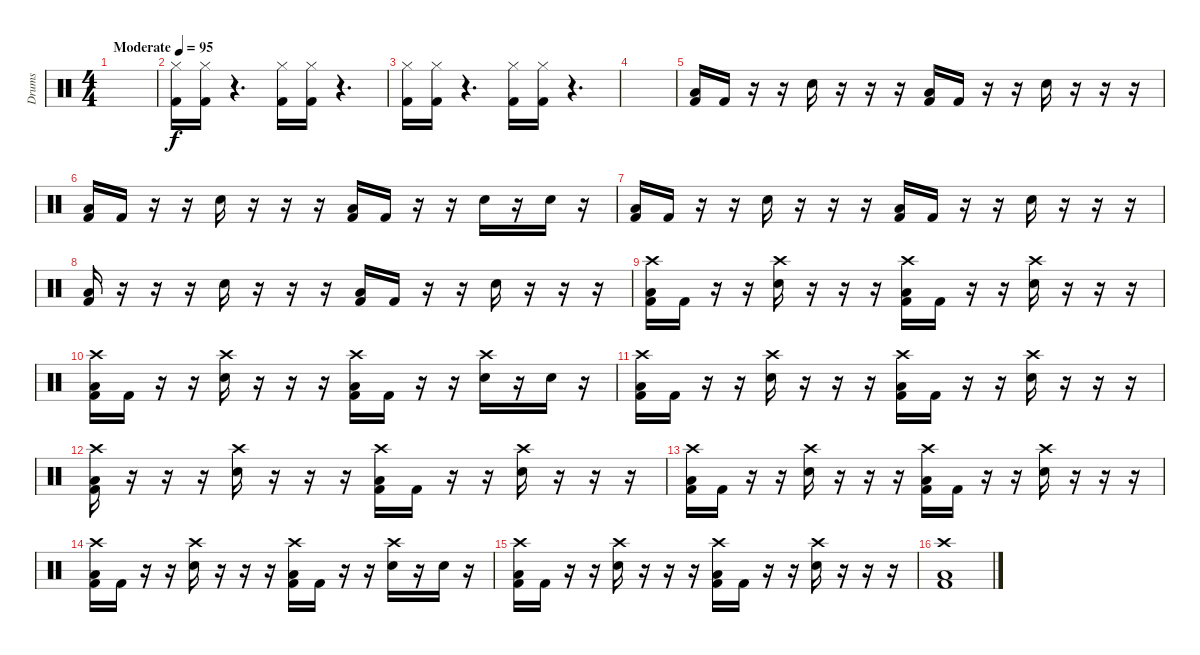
\track ("Drums" "Drums") {instrument percussion bank 255}
\staff {score}
\articulation defaults
\ts (4 4)
\tempo (95 "Moderate")
\clef neutral
\ks c
|
("Hi-Hat (closed)" "Kick (hit) 2").16 ("Hi-Hat (closed)" "Kick (hit) 2").16 r.4{d} ("Hi-Hat (closed)" "Kick (hit) 2").16 ("Hi-Hat (closed)" "Kick (hit) 2").16 r.4{d} |
("Hi-Hat (closed)" "Kick (hit) 2").16 ("Hi-Hat (closed)" "Kick (hit) 2").16 r.4{d} ("Hi-Hat (closed)" "Kick (hit) 2").16 ("Hi-Hat (closed)" "Kick (hit) 2").16 r.4{d} |
|
("Low Tom (hit)" "Kick (hit) 2").16 "Kick (hit) 2".16 r.16 r.16 "Snare (hit) 2".16 r.16 r.16 r.16 ("Low Tom (hit)" "Kick (hit) 2").16 "Kick (hit) 2".16 r.16 r.16 "Snare (hit) 2".16 r.16 r.16 r.16 |
("Low Tom (hit)" "Kick (hit) 2").16 "Kick (hit) 2".16 r.16 r.16 "Snare (hit) 2".16 r.16 r.16 r.16 ("Low Tom (hit)" "Kick (hit) 2").16 "Kick (hit) 2".16 r.16 r.16 "Snare (hit) 2".16 r.16 "Snare (hit) 2".16 r.16 |
("Low Tom (hit)" "Kick (hit) 2").16 "Kick (hit) 2".16 r.16 r.16 "Snare (hit) 2".16 r.16 r.16 r.16 ("Low Tom (hit)" "Kick (hit) 2").16 "Kick (hit) 2".16 r.16 r.16 "Snare (hit) 2".16 r.16 r.16 r.16 |
("Low Tom (hit)" "Kick (hit) 2").16 r.16 r.16 r.16 "Snare (hit) 2".16 r.16 r.16 r.16 ("Low Tom (hit)" "Kick (hit) 2").16 "Kick (hit) 2".16 r.16 r.16 "Snare (hit) 2".16 r.16 r.16 r.16 |
("Crash high (hit)" "Low Tom (hit)" "Kick (hit) 2").16 "Kick (hit) 2".16 r.16 r.16 ("Crash high (hit)" "Snare (hit) 2").16 r.16 r.16 r.16 ("Crash high (hit)" "Low Tom (hit)" "Kick (hit) 2").16 "Kick (hit) 2".16 r.16 r.16 ("Crash high (hit)" "Snare (hit) 2").16 r.16 r.16 r.16 |
("Crash high (hit)" "Low Tom (hit)" "Kick (hit) 2").16 "Kick (hit) 2".16 r.16 r.16 ("Crash high (hit)" "Snare (hit) 2").16 r.16 r.16 r.16 ("Crash high (hit)" "Low Tom (hit)" "Kick (hit) 2").16 "Kick (hit) 2".16 r.16 r.16 ("Crash high (hit)" "Snare (hit) 2").16 r.16 "Snare (hit) 2".16 r.16 |
("Crash high (hit)" "Low Tom (hit)" "Kick (hit) 2").16 "Kick (hit) 2".16 r.16 r.16 ("Crash high (hit)" "Snare (hit) 2").16 r.16 r.16 r.16 ("Crash high (hit)" "Low Tom (hit)" "Kick (hit) 2").16 "Kick (hit) 2".16 r.16 r.16 ("Crash high (hit)" "Snare (hit) 2").16 r.16 r.16 r.16 |
("Crash high (hit)" "Low Tom (hit)" "Kick (hit) 2").16 r.16 r.16 r.16 ("Crash high (hit)" "Snare (hit) 2").16 r.16 r.16 r.16 ("Crash high (hit)" "Low Tom (hit)" "Kick (hit) 2").16 "Kick (hit) 2".16 r.16 r.16 ("Crash high (hit)" "Snare (hit) 2").16 r.16 r.16 r.16 |
("Crash high (hit)" "Low Tom (hit)" "Kick (hit) 2").16 "Kick (hit) 2".16 r.16 r.16 ("Crash high (hit)" "Snare (hit) 2").16 r.16 r.16 r.16 ("Crash high (hit)" "Low Tom (hit)" "Kick (hit) 2").16 "Kick (hit) 2".16 r.16 r.16 ("Crash high (hit)" "Snare (hit) 2").16 r.16 r.16 r.16 |
("Crash high (hit)" "Low Tom (hit)" "Kick (hit) 2").16 "Kick (hit) 2".16 r.16 r.16 ("Crash high (hit)" "Snare (hit) 2").16 r.16 r.16 r.16 ("Crash high (hit)" "Low Tom (hit)" "Kick (hit) 2").16 "Kick (hit) 2".16 r.16 r.16 ("Crash high (hit)" "Snare (hit) 2").16 r.16 "Snare (hit) 2".16 r.16 |
("Crash high (hit)" "Low Tom (hit)" "Kick (hit) 2").16 "Kick (hit) 2".16 r.16 r.16 ("Crash high (hit)" "Snare (hit) 2").16 r.16 r.16 r.16 ("Crash high (hit)" "Low Tom (hit)" "Kick (hit) 2").16 "Kick (hit) 2".16 r.16 r.16 ("Crash high (hit)" "Snare (hit) 2").16 r.16 r.16 r.16 |
("Crash high (hit)" "Low Tom (hit)" "Kick (hit) 2").1
